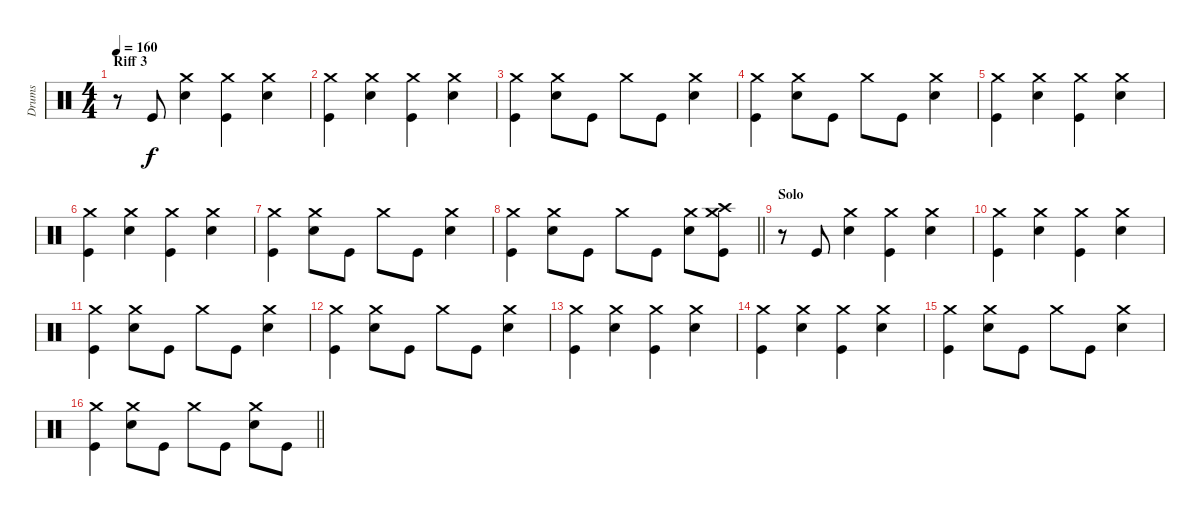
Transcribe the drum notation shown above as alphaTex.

\track ("Drums" "Drums") {instrument percussion}
\staff {score}
\articulation defaults
\ts (4 4)
\section ("" "Riff 3")
\tempo 160
\clef neutral
\ks c
r.8{dy f} "Kick (hit)".8 ("Crash medium (hit)" "Electric Snare (hit)").4 ("Kick (hit)" "Crash medium (hit)").4 ("Crash medium (hit)" "Electric Snare (hit)").4 |
("Kick (hit)" "Crash medium (hit)").4 ("Crash medium (hit)" "Electric Snare (hit)").4 ("Kick (hit)" "Crash medium (hit)").4 ("Crash medium (hit)" "Electric Snare (hit)").4 |
("Kick (hit)" "Crash medium (hit)").4 ("Crash medium (hit)" "Electric Snare (hit)").8 "Kick (hit)".8 "Crash medium (hit)".8 "Kick (hit)".8 ("Crash medium (hit)" "Electric Snare (hit)").4 |
("Kick (hit)" "Crash medium (hit)").4 ("Crash medium (hit)" "Electric Snare (hit)").8 "Kick (hit)".8 "Crash medium (hit)".8 "Kick (hit)".8 ("Crash medium (hit)" "Electric Snare (hit)").4 |
("Kick (hit)" "Crash medium (hit)").4 ("Crash medium (hit)" "Electric Snare (hit)").4 ("Kick (hit)" "Crash medium (hit)").4 ("Crash medium (hit)" "Electric Snare (hit)").4 |
("Kick (hit)" "Crash medium (hit)").4 ("Crash medium (hit)" "Electric Snare (hit)").4 ("Kick (hit)" "Crash medium (hit)").4 ("Crash medium (hit)" "Electric Snare (hit)").4 |
("Kick (hit)" "Crash medium (hit)").4 ("Crash medium (hit)" "Electric Snare (hit)").8 "Kick (hit)".8 "Crash medium (hit)".8 "Kick (hit)".8 ("Crash medium (hit)" "Electric Snare (hit)").4 |
\barLineRight lightlight
("Kick (hit)" "Crash medium (hit)").4 ("Crash medium (hit)" "Electric Snare (hit)").8 "Kick (hit)".8 "Crash medium (hit)".8 "Kick (hit)".8 ("Crash medium (hit)" "Electric Snare (hit)").8 ("Kick (hit)" "Crash high (hit)" "Crash medium (hit)").8 |
\section ("" "Solo")
r.8 "Kick (hit)".8 ("Crash medium (hit)" "Electric Snare (hit)").4 ("Kick (hit)" "Crash medium (hit)").4 ("Crash medium (hit)" "Electric Snare (hit)").4 |
("Kick (hit)" "Crash medium (hit)").4 ("Crash medium (hit)" "Electric Snare (hit)").4 ("Kick (hit)" "Crash medium (hit)").4 ("Crash medium (hit)" "Electric Snare (hit)").4 |
("Kick (hit)" "Crash medium (hit)").4 ("Crash medium (hit)" "Electric Snare (hit)").8 "Kick (hit)".8 "Crash medium (hit)".8 "Kick (hit)".8 ("Crash medium (hit)" "Electric Snare (hit)").4 |
("Kick (hit)" "Crash medium (hit)").4 ("Crash medium (hit)" "Electric Snare (hit)").8 "Kick (hit)".8 "Crash medium (hit)".8 "Kick (hit)".8 ("Crash medium (hit)" "Electric Snare (hit)").4 |
("Kick (hit)" "Crash medium (hit)").4 ("Crash medium (hit)" "Electric Snare (hit)").4 ("Kick (hit)" "Crash medium (hit)").4 ("Crash medium (hit)" "Electric Snare (hit)").4 |
("Kick (hit)" "Crash medium (hit)").4 ("Crash medium (hit)" "Electric Snare (hit)").4 ("Kick (hit)" "Crash medium (hit)").4 ("Crash medium (hit)" "Electric Snare (hit)").4 |
("Kick (hit)" "Crash medium (hit)").4 ("Crash medium (hit)" "Electric Snare (hit)").8 "Kick (hit)".8 "Crash medium (hit)".8 "Kick (hit)".8 ("Crash medium (hit)" "Electric Snare (hit)").4 |
\barLineRight lightlight
("Kick (hit)" "Crash medium (hit)").4 ("Crash medium (hit)" "Electric Snare (hit)").8 "Kick (hit)".8 "Crash medium (hit)".8 "Kick (hit)".8 ("Crash medium (hit)" "Electric Snare (hit)").8 "Kick (hit)".8
